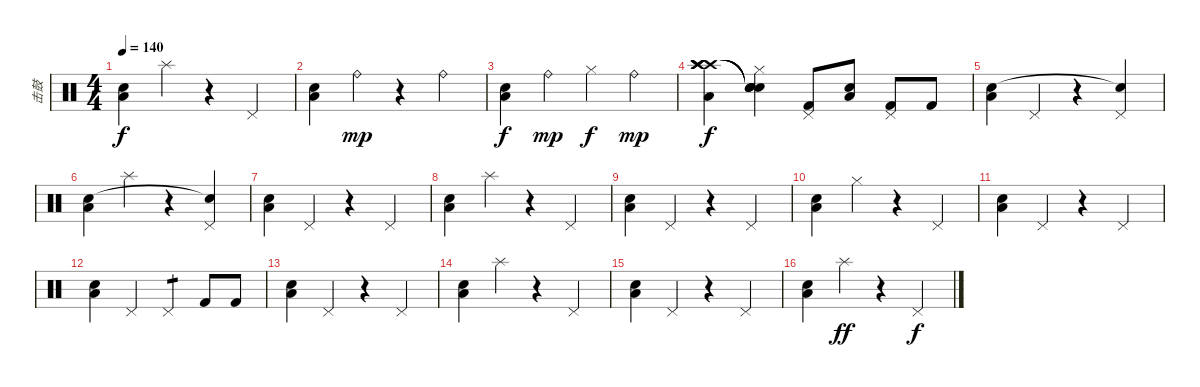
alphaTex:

\track ("击鼓" "击鼓") {instrument percussion}
\staff {score}
\articulation defaults
\ts (4 4)
\tempo 140
\clef neutral
\ks c
("Low Floor Tom (hit)" "Snare (hit) 2").4{dy f} "Splash (hit)".4 r.4 "Pedal Hi-Hat (hit)".4 |
("Low Floor Tom (hit)" "Snare (hit) 2").4 "Ride (bell)".4{dy mp} r.4 "Ride (bell)".4 |
("Low Floor Tom (hit)" "Snare (hit) 2").4{dy f} "Ride (bell)".4{dy mp} "Hi-Hat (closed)".4{dy f} "Ride (bell)".4{dy mp} |
("Crash high (hit)" "Crash high (hit)" "Crash high (hit)" "Low Floor Tom (hit)" "Crash high (hit)").4{dy f} ("Snare (hit)"{t} "Snare (hit)"{t} "Snare (hit)"{t} "Hi-Hat (closed)" "Snare (hit)"{t}).4 ("Pedal Hi-Hat (hit)" "Kick (hit) 2").8 ("Low Floor Tom (hit)" "Snare (hit) 2").8 ("Pedal Hi-Hat (hit)" "Kick (hit) 2").8 "Kick (hit) 2".8 |
("Low Floor Tom (hit)" "Snare (hit) 2").4 "Pedal Hi-Hat (hit)".4 r.4 ("Pedal Hi-Hat (hit)" "Snare (hit)"{t}).4 |
("Low Floor Tom (hit)" "Snare (hit) 2").4 "Splash (hit)".4 r.4 ("Pedal Hi-Hat (hit)" "Snare (hit)"{t}).4 |
("Low Floor Tom (hit)" "Snare (hit) 2").4 "Pedal Hi-Hat (hit)".4 r.4 "Pedal Hi-Hat (hit)".4 |
("Low Floor Tom (hit)" "Snare (hit) 2").4 "Splash (hit)".4 r.4 "Pedal Hi-Hat (hit)".4 |
("Low Floor Tom (hit)" "Snare (hit) 2").4 "Pedal Hi-Hat (hit)".4 r.4 "Pedal Hi-Hat (hit)".4 |
("Low Floor Tom (hit)" "Snare (hit) 2").4 "Hi-Hat (closed)".4 r.4 "Pedal Hi-Hat (hit)".4 |
("Low Floor Tom (hit)" "Snare (hit) 2").4 "Pedal Hi-Hat (hit)".4 r.4 "Pedal Hi-Hat (hit)".4 |
("Low Floor Tom (hit)" "Snare (hit) 2").4 "Pedal Hi-Hat (hit)".4 "Pedal Hi-Hat (hit)".4{tp 1} "Kick (hit) 2".8 "Kick (hit) 2".8 |
("Low Floor Tom (hit)" "Snare (hit) 2").4 "Pedal Hi-Hat (hit)".4 r.4 "Pedal Hi-Hat (hit)".4 |
("Low Floor Tom (hit)" "Snare (hit) 2").4 "Splash (hit)".4 r.4 "Pedal Hi-Hat (hit)".4 |
("Low Floor Tom (hit)" "Snare (hit) 2").4 "Pedal Hi-Hat (hit)".4 r.4 "Pedal Hi-Hat (hit)".4 |
("Low Floor Tom (hit)" "Snare (hit) 2").4 "Splash (hit)".4{dy ff} r.4 "Pedal Hi-Hat (hit)".4{dy f}
